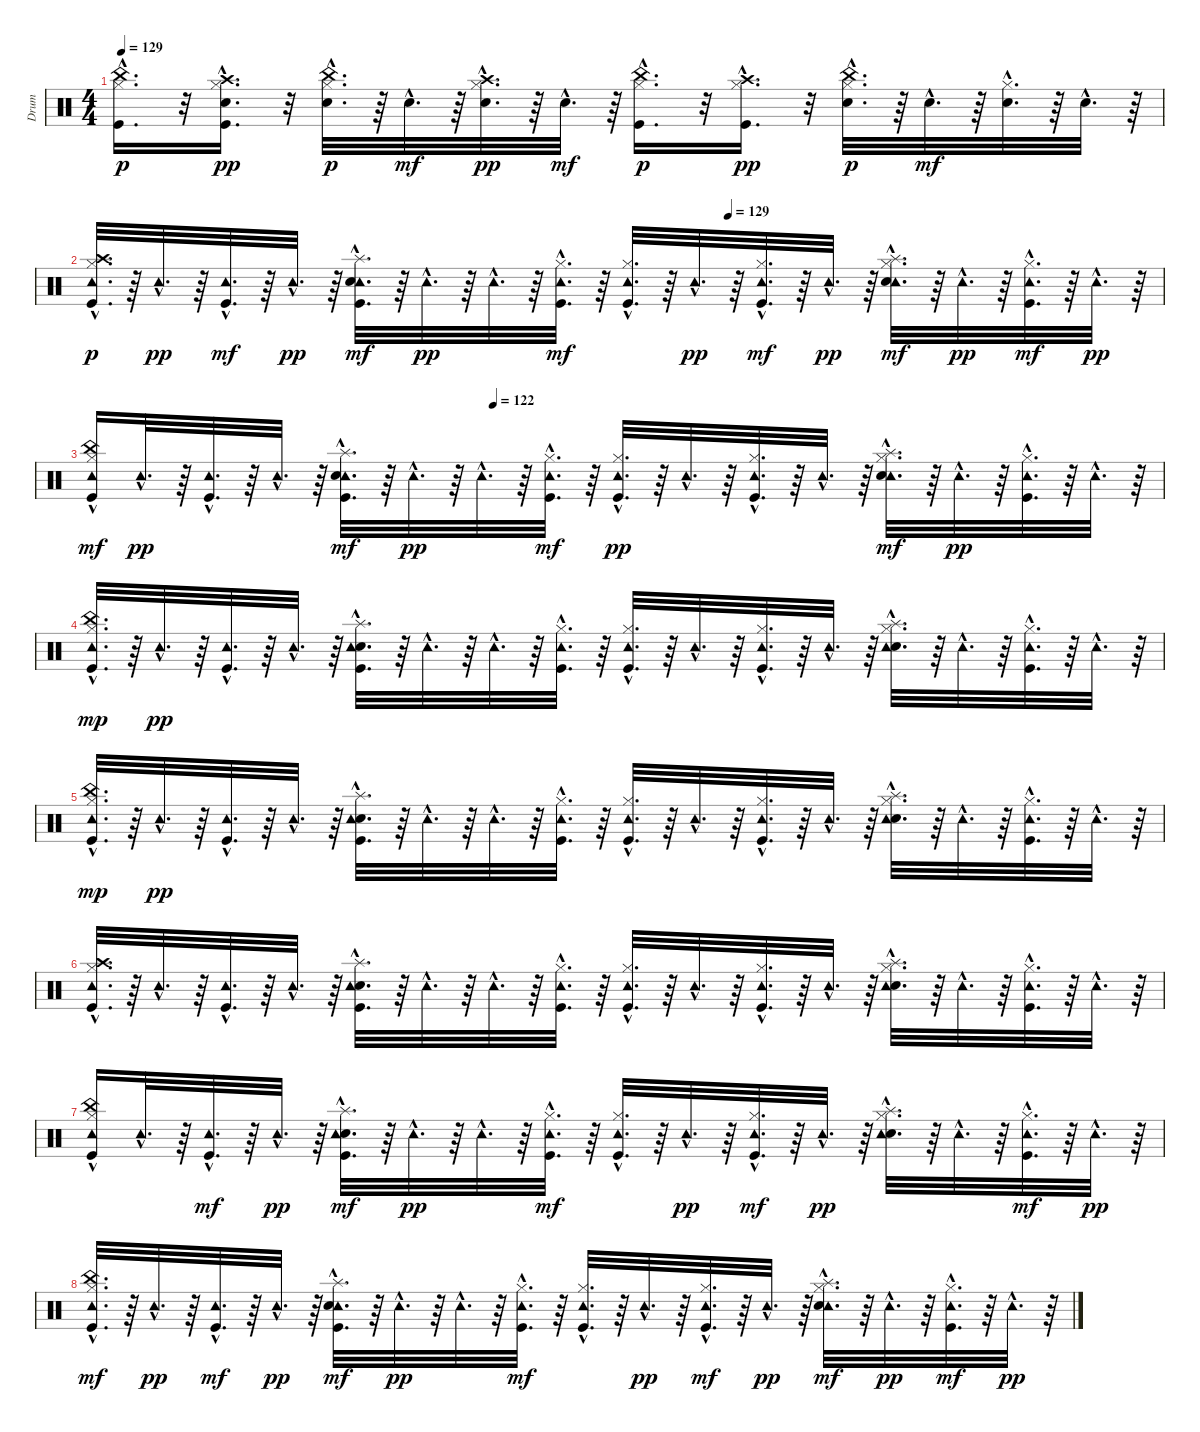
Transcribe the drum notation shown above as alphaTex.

\track ("Drum" "Drum") {instrument percussion}
\staff {score}
\articulation defaults
\ts (4 4)
\tempo 129
\clef neutral
\ks c
("Kick (hit)"{hac} "Hi-Hat (closed)"{hac} "China (hit)"{hac}).16{d dy p} r.32 ("Hi-Hat (closed)"{hac} "Kick (hit)"{hac} "Snare (hit) 2"{hac} "Crash high (hit)"{hac}).16{d dy pp} r.32 ("Snare (hit) 2"{hac} "Hi-Hat (closed)"{hac} "China (hit)"{hac}).32{d dy p} r.64 "Snare (hit) 2"{hac}.32{d dy mf} r.64 ("Snare (hit) 2"{hac} "Hi-Hat (closed)"{hac} "Crash high (hit)"{hac}).32{d dy pp} r.64 "Snare (hit) 2"{hac}.32{d dy mf} r.64 ("Hi-Hat (closed)"{hac} "Kick (hit)"{hac} "China (hit)"{hac}).16{d dy p} r.32 ("Hi-Hat (closed)"{hac} "Kick (hit)"{hac} "Crash high (hit)"{hac}).16{d dy pp} r.32 ("Snare (hit) 2"{hac} "Hi-Hat (closed)"{hac} "China (hit)"{hac}).32{d dy p} r.64 "Snare (hit) 2"{hac}.32{d dy mf} r.64 ("Snare (hit) 2"{hac} "Hi-Hat (closed)"{hac}).32{d} r.64 "Snare (hit) 2"{hac}.32{d} r.64 |
\tempo (129 0.59375)
("Tambourine (hit)"{hac} "Hi-Hat (closed)"{hac} "Kick (hit)"{hac} "Crash high (hit)"{hac}).32{d dy p} r.64 "Tambourine (hit)"{hac}.32{d dy pp} r.64 ("Tambourine (hit)"{hac} "Kick (hit)"{hac}).32{d dy mf} r.64 "Tambourine (hit)"{hac}.32{d dy pp} r.64 ("Tambourine (hit)"{hac} "Kick (hit)"{hac} "Snare (hit) 2"{hac} "Splash (hit)"{hac}).32{d dy mf} r.64 "Tambourine (hit)"{hac}.32{d dy pp} r.64 "Tambourine (hit)"{hac}.32{d} r.64 ("Tambourine (hit)"{hac} "Hi-Hat (closed)"{hac} "Kick (hit)"{hac}).32{d dy mf} r.64 ("Tambourine (hit)"{hac} "Hi-Hat (closed)"{hac} "Kick (hit)"{hac}).32{d} r.64 "Tambourine (hit)"{hac}.32{d dy pp} r.64 ("Tambourine (hit)"{hac} "Hi-Hat (closed)"{hac} "Kick (hit)"{hac}).32{d dy mf} r.64 "Tambourine (hit)"{hac}.32{d dy pp} r.64 ("Tambourine (hit)"{hac} "Hi-Hat (closed)"{hac} "Snare (hit) 2"{hac} "Splash (hit)"{hac}).32{d dy mf} r.64 "Tambourine (hit)"{hac}.32{d dy pp} r.64 ("Tambourine (hit)"{hac} "Hi-Hat (closed)"{hac} "Kick (hit)"{hac}).32{d dy mf} r.64 "Tambourine (hit)"{hac}.32{d dy pp} r.64 |
\tempo (122 0.375)
("Tambourine (hit)"{hac} "Hi-Hat (closed)"{hac} "China (hit)"{hac} "Kick (hit)"{hac}).16{dy mf} "Tambourine (hit)"{hac}.32{d dy pp} r.64 ("Kick (hit)"{hac} "Tambourine (hit)"{hac}).32{d} r.64 "Tambourine (hit)"{hac}.32{d} r.64 ("Kick (hit)"{hac} "Tambourine (hit)"{hac} "Snare (hit) 2"{hac} "Splash (hit)"{hac}).32{d dy mf} r.64 "Tambourine (hit)"{hac}.32{d dy pp} r.64 "Tambourine (hit)"{hac}.32{d} r.64 ("Hi-Hat (closed)"{hac} "Tambourine (hit)"{hac} "Kick (hit)"{hac}).32{d dy mf} r.64 ("Kick (hit)"{hac} "Hi-Hat (closed)"{hac} "Tambourine (hit)"{hac}).32{d dy pp} r.64 "Tambourine (hit)"{hac}.32{d} r.64 ("Kick (hit)"{hac} "Hi-Hat (closed)"{hac} "Tambourine (hit)"{hac}).32{d} r.64 "Tambourine (hit)"{hac}.32{d} r.64 ("Tambourine (hit)"{hac} "Hi-Hat (closed)"{hac} "Snare (hit) 2"{hac} "Splash (hit)"{hac}).32{d dy mf} r.64 "Tambourine (hit)"{hac}.32{d dy pp} r.64 ("Kick (hit)"{hac} "Hi-Hat (closed)"{hac} "Tambourine (hit)"{hac}).32{d} r.64 "Tambourine (hit)"{hac}.32{d} r.64 |
("Kick (hit)"{hac} "Hi-Hat (closed)"{hac} "Tambourine (hit)"{hac} "China (hit)"{hac}).32{d dy mp} r.64 "Tambourine (hit)"{hac}.32{d dy pp} r.64 ("Kick (hit)"{hac} "Tambourine (hit)"{hac}).32{d} r.64 "Tambourine (hit)"{hac}.32{d} r.64 ("Splash (hit)"{hac} "Snare (hit) 2"{hac} "Kick (hit)"{hac} "Tambourine (hit)"{hac}).32{d} r.64 "Tambourine (hit)"{hac}.32{d} r.64 "Tambourine (hit)"{hac}.32{d} r.64 ("Kick (hit)"{hac} "Hi-Hat (closed)"{hac} "Tambourine (hit)"{hac}).32{d} r.64 ("Kick (hit)"{hac} "Hi-Hat (closed)"{hac} "Tambourine (hit)"{hac}).32{d} r.64 "Tambourine (hit)"{hac}.32{d} r.64 ("Kick (hit)"{hac} "Hi-Hat (closed)"{hac} "Tambourine (hit)"{hac}).32{d} r.64 "Tambourine (hit)"{hac}.32{d} r.64 ("Splash (hit)"{hac} "Snare (hit) 2"{hac} "Hi-Hat (closed)"{hac} "Tambourine (hit)"{hac}).32{d} r.64 "Tambourine (hit)"{hac}.32{d} r.64 ("Kick (hit)"{hac} "Hi-Hat (closed)"{hac} "Tambourine (hit)"{hac}).32{d} r.64 "Tambourine (hit)"{hac}.32{d} r.64 |
("Kick (hit)"{hac} "Hi-Hat (closed)"{hac} "Tambourine (hit)"{hac} "China (hit)"{hac}).32{d dy mp} r.64 "Tambourine (hit)"{hac}.32{d dy pp} r.64 ("Kick (hit)"{hac} "Tambourine (hit)"{hac}).32{d} r.64 "Tambourine (hit)"{hac}.32{d} r.64 ("Splash (hit)"{hac} "Snare (hit) 2"{hac} "Kick (hit)"{hac} "Tambourine (hit)"{hac}).32{d} r.64 "Tambourine (hit)"{hac}.32{d} r.64 "Tambourine (hit)"{hac}.32{d} r.64 ("Kick (hit)"{hac} "Hi-Hat (closed)"{hac} "Tambourine (hit)"{hac}).32{d} r.64 ("Kick (hit)"{hac} "Hi-Hat (closed)"{hac} "Tambourine (hit)"{hac}).32{d} r.64 "Tambourine (hit)"{hac}.32{d} r.64 ("Kick (hit)"{hac} "Hi-Hat (closed)"{hac} "Tambourine (hit)"{hac}).32{d} r.64 "Tambourine (hit)"{hac}.32{d} r.64 ("Splash (hit)"{hac} "Snare (hit) 2"{hac} "Hi-Hat (closed)"{hac} "Tambourine (hit)"{hac}).32{d} r.64 "Tambourine (hit)"{hac}.32{d} r.64 ("Kick (hit)"{hac} "Hi-Hat (closed)"{hac} "Tambourine (hit)"{hac}).32{d} r.64 "Tambourine (hit)"{hac}.32{d} r.64 |
("Crash high (hit)"{hac} "Kick (hit)"{hac} "Hi-Hat (closed)"{hac} "Tambourine (hit)"{hac}).32{d} r.64 "Tambourine (hit)"{hac}.32{d} r.64 ("Kick (hit)"{hac} "Tambourine (hit)"{hac}).32{d} r.64 "Tambourine (hit)"{hac}.32{d} r.64 ("Splash (hit)"{hac} "Snare (hit) 2"{hac} "Kick (hit)"{hac} "Tambourine (hit)"{hac}).32{d} r.64 "Tambourine (hit)"{hac}.32{d} r.64 "Tambourine (hit)"{hac}.32{d} r.64 ("Kick (hit)"{hac} "Hi-Hat (closed)"{hac} "Tambourine (hit)"{hac}).32{d} r.64 ("Kick (hit)"{hac} "Hi-Hat (closed)"{hac} "Tambourine (hit)"{hac}).32{d} r.64 "Tambourine (hit)"{hac}.32{d} r.64 ("Kick (hit)"{hac} "Hi-Hat (closed)"{hac} "Tambourine (hit)"{hac}).32{d} r.64 "Tambourine (hit)"{hac}.32{d} r.64 ("Splash (hit)"{hac} "Snare (hit) 2"{hac} "Hi-Hat (closed)"{hac} "Tambourine (hit)"{hac}).32{d} r.64 "Tambourine (hit)"{hac}.32{d} r.64 ("Kick (hit)"{hac} "Hi-Hat (closed)"{hac} "Tambourine (hit)"{hac}).32{d} r.64 "Tambourine (hit)"{hac}.32{d} r.64 |
("Kick (hit)"{hac} "China (hit)"{hac} "Hi-Hat (closed)"{hac} "Tambourine (hit)"{hac}).16 "Tambourine (hit)"{hac}.32{d} r.64 ("Tambourine (hit)"{hac} "Kick (hit)"{hac}).32{d dy mf} r.64 "Tambourine (hit)"{hac}.32{d dy pp} r.64 ("Splash (hit)"{hac} "Snare (hit) 2"{hac} "Tambourine (hit)"{hac} "Kick (hit)"{hac}).32{d dy mf} r.64 "Tambourine (hit)"{hac}.32{d dy pp} r.64 "Tambourine (hit)"{hac}.32{d} r.64 ("Kick (hit)"{hac} "Tambourine (hit)"{hac} "Hi-Hat (closed)"{hac}).32{d dy mf} r.64 ("Tambourine (hit)"{hac} "Hi-Hat (closed)"{hac} "Kick (hit)"{hac}).32{d} r.64 "Tambourine (hit)"{hac}.32{d dy pp} r.64 ("Tambourine (hit)"{hac} "Hi-Hat (closed)"{hac} "Kick (hit)"{hac}).32{d dy mf} r.64 "Tambourine (hit)"{hac}.32{d dy pp} r.64 ("Splash (hit)"{hac} "Snare (hit) 2"{hac} "Hi-Hat (closed)"{hac} "Tambourine (hit)"{hac}).32{d} r.64 "Tambourine (hit)"{hac}.32{d} r.64 ("Tambourine (hit)"{hac} "Hi-Hat (closed)"{hac} "Kick (hit)"{hac}).32{d dy mf} r.64 "Tambourine (hit)"{hac}.32{d dy pp} r.64 |
("China (hit)"{hac} "Tambourine (hit)"{hac} "Hi-Hat (closed)"{hac} "Kick (hit)"{hac}).32{d dy mf} r.64 "Tambourine (hit)"{hac}.32{d dy pp} r.64 ("Tambourine (hit)"{hac} "Kick (hit)"{hac}).32{d dy mf} r.64 "Tambourine (hit)"{hac}.32{d dy pp} r.64 ("Tambourine (hit)"{hac} "Kick (hit)"{hac} "Snare (hit) 2"{hac} "Splash (hit)"{hac}).32{d dy mf} r.64 "Tambourine (hit)"{hac}.32{d dy pp} r.64 "Tambourine (hit)"{hac}.32{d} r.64 ("Tambourine (hit)"{hac} "Hi-Hat (closed)"{hac} "Kick (hit)"{hac}).32{d dy mf} r.64 ("Tambourine (hit)"{hac} "Hi-Hat (closed)"{hac} "Kick (hit)"{hac}).32{d} r.64 "Tambourine (hit)"{hac}.32{d dy pp} r.64 ("Tambourine (hit)"{hac} "Hi-Hat (closed)"{hac} "Kick (hit)"{hac}).32{d dy mf} r.64 "Tambourine (hit)"{hac}.32{d dy pp} r.64 ("Tambourine (hit)"{hac} "Hi-Hat (closed)"{hac} "Snare (hit) 2"{hac} "Splash (hit)"{hac}).32{d dy mf} r.64 "Tambourine (hit)"{hac}.32{d dy pp} r.64 ("Tambourine (hit)"{hac} "Hi-Hat (closed)"{hac} "Kick (hit)"{hac}).32{d dy mf} r.64 "Tambourine (hit)"{hac}.32{d dy pp} r.64
